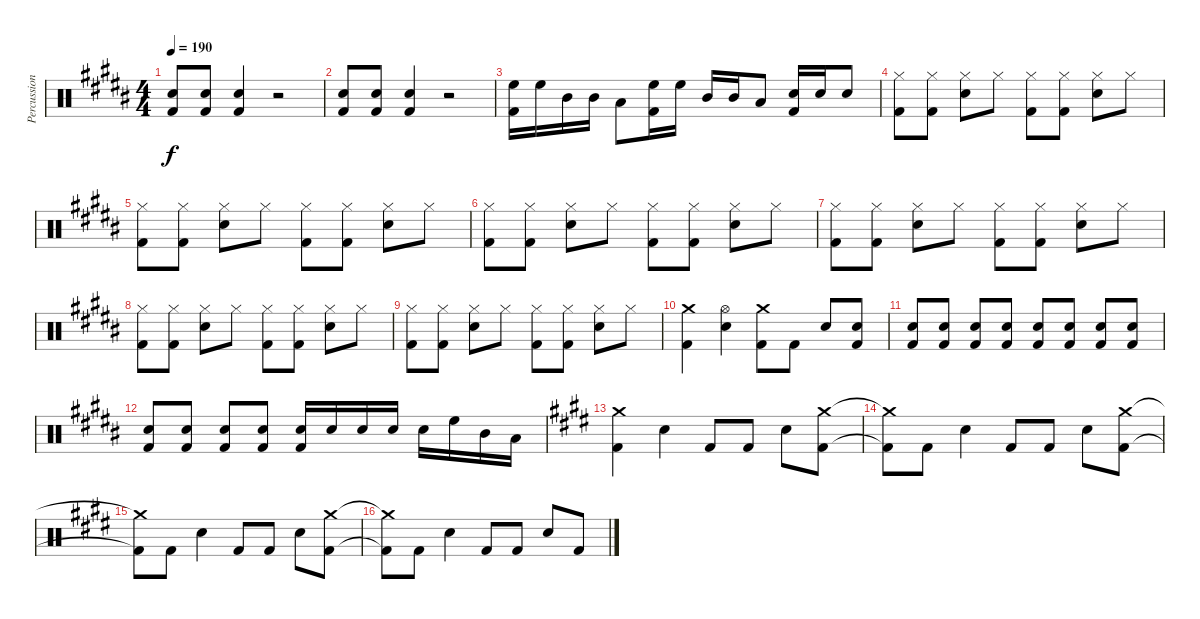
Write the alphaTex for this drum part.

\track ("Percussion" "Percussion") {instrument percussion}
\staff {score}
\articulation defaults
\ts (4 4)
\tempo 190
\clef neutral
\ks b
("Snare (hit) 2" "Kick (hit) 2").8{dy f} ("Snare (hit) 2" "Kick (hit) 2").8 ("Snare (hit) 2" "Kick (hit) 2").4 r.2 |
("Snare (hit) 2" "Kick (hit) 2").8 ("Snare (hit) 2" "Kick (hit) 2").8 ("Snare (hit) 2" "Kick (hit) 2").4 r.2 |
("High Floor Tom (hit)" "Kick (hit) 2").16 "High Floor Tom (hit)".16 "Mid Tom (hit)".16 "Mid Tom (hit)".16 "Low Floor Tom (hit)".8 ("High Floor Tom (hit)" "Kick (hit) 2").16 "High Floor Tom (hit)".16 "Mid Tom (hit)".16 "Mid Tom (hit)".16 "Low Floor Tom (hit)".8 ("Snare (hit) 2" "Kick (hit) 2").16 "Snare (hit) 2".16 "Snare (hit) 2".8 |
("Hi-Hat (closed)" "Kick (hit) 2").8 ("Hi-Hat (closed)" "Kick (hit) 2").8 ("Hi-Hat (closed)" "Snare (hit) 2").8 "Hi-Hat (closed)".8 ("Hi-Hat (closed)" "Kick (hit) 2").8 ("Hi-Hat (closed)" "Kick (hit) 2").8 ("Hi-Hat (closed)" "Snare (hit) 2").8 "Hi-Hat (closed)".8 |
("Hi-Hat (closed)" "Kick (hit) 2").8 ("Hi-Hat (closed)" "Kick (hit) 2").8 ("Hi-Hat (closed)" "Snare (hit) 2").8 "Hi-Hat (closed)".8 ("Hi-Hat (closed)" "Kick (hit) 2").8 ("Hi-Hat (closed)" "Kick (hit) 2").8 ("Hi-Hat (closed)" "Snare (hit) 2").8 "Hi-Hat (closed)".8 |
("Hi-Hat (closed)" "Kick (hit) 2").8 ("Hi-Hat (closed)" "Kick (hit) 2").8 ("Hi-Hat (closed)" "Snare (hit) 2").8 "Hi-Hat (closed)".8 ("Hi-Hat (closed)" "Kick (hit) 2").8 ("Hi-Hat (closed)" "Kick (hit) 2").8 ("Hi-Hat (closed)" "Snare (hit) 2").8 "Hi-Hat (closed)".8 |
("Hi-Hat (closed)" "Kick (hit) 2").8 ("Hi-Hat (closed)" "Kick (hit) 2").8 ("Hi-Hat (closed)" "Snare (hit) 2").8 "Hi-Hat (closed)".8 ("Hi-Hat (closed)" "Kick (hit) 2").8 ("Hi-Hat (closed)" "Kick (hit) 2").8 ("Hi-Hat (closed)" "Snare (hit) 2").8 "Hi-Hat (closed)".8 |
("Hi-Hat (closed)" "Kick (hit) 2").8 ("Hi-Hat (closed)" "Kick (hit) 2").8 ("Hi-Hat (closed)" "Snare (hit) 2").8 "Hi-Hat (closed)".8 ("Hi-Hat (closed)" "Kick (hit) 2").8 ("Hi-Hat (closed)" "Kick (hit) 2").8 ("Hi-Hat (closed)" "Snare (hit) 2").8 "Hi-Hat (closed)".8 |
("Hi-Hat (closed)" "Kick (hit) 2").8 ("Hi-Hat (closed)" "Kick (hit) 2").8 ("Hi-Hat (closed)" "Snare (hit) 2").8 "Hi-Hat (closed)".8 ("Hi-Hat (closed)" "Kick (hit) 2").8 ("Hi-Hat (closed)" "Kick (hit) 2").8 ("Hi-Hat (closed)" "Snare (hit) 2").8 "Hi-Hat (closed)".8 |
("Crash medium (hit)" "Kick (hit) 2").4 ("Hi-Hat (open)" "Snare (hit) 2").4 ("Crash medium (hit)" "Kick (hit) 2").8 "Kick (hit) 2".8 "Snare (hit) 2".8 ("Snare (hit) 2" "Kick (hit) 2").8 |
("Snare (hit) 2" "Kick (hit) 2").8 ("Snare (hit) 2" "Kick (hit) 2").8 ("Snare (hit) 2" "Kick (hit) 2").8 ("Snare (hit) 2" "Kick (hit) 2").8 ("Snare (hit) 2" "Kick (hit) 2").8 ("Snare (hit) 2" "Kick (hit) 2").8 ("Snare (hit) 2" "Kick (hit) 2").8 ("Snare (hit) 2" "Kick (hit) 2").8 |
("Snare (hit) 2" "Kick (hit) 2").8 ("Snare (hit) 2" "Kick (hit) 2").8 ("Snare (hit) 2" "Kick (hit) 2").8 ("Snare (hit) 2" "Kick (hit) 2").8 ("Snare (hit) 2" "Kick (hit) 2").16 "Snare (hit) 2".16 "Snare (hit) 2".16 "Snare (hit) 2".16 "Snare (hit) 2".16 "High Floor Tom (hit)".16 "Mid Tom (hit)".16 "Low Floor Tom (hit)".16 |
\ks e
("Crash medium (hit)" "Kick (hit) 2").4 "Snare (hit) 2".4 "Kick (hit) 2".8 "Kick (hit) 2".8 "Snare (hit) 2".8 ("Crash medium (hit)" "Kick (hit) 2").8 |
("Crash medium (hit)"{t} "Kick (hit) 2"{t}).8 "Kick (hit) 2".8 "Snare (hit) 2".4 "Kick (hit) 2".8 "Kick (hit) 2".8 "Snare (hit) 2".8 ("Crash medium (hit)" "Kick (hit) 2").8 |
("Crash medium (hit)"{t} "Kick (hit) 2"{t}).8 "Kick (hit) 2".8 "Snare (hit) 2".4 "Kick (hit) 2".8 "Kick (hit) 2".8 "Snare (hit) 2".8 ("Crash medium (hit)" "Kick (hit) 2").8 |
("Crash medium (hit)"{t} "Kick (hit) 2"{t}).8 "Kick (hit) 2".8 "Snare (hit) 2".4 "Kick (hit) 2".8 "Kick (hit) 2".8 "Snare (hit) 2".8 "Kick (hit) 2".8
